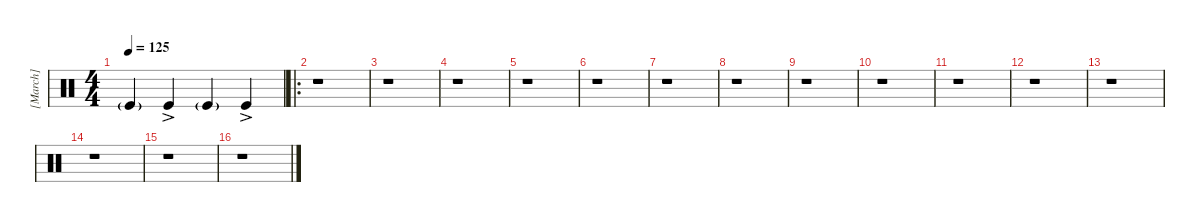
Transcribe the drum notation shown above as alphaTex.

\hideDynamics
\bracketExtendMode groupsimilarinstruments
\firstSystemTrackNameMode fullname
\otherSystemsTrackNameMode fullname
\otherSystemsTrackNameOrientation horizontal
\track ("[March]" "H-Clap") {instrument percussion}
\staff {score}
\articulation defaults
\ts (4 4)
\tempo 125
\clef neutral
\ks c "Kick (hit)"{g}.4{dy mf} "Kick (hit)"{ac}.4 "Kick (hit)"{g}.4 "Kick (hit)"{ac}.4
|
\ro
\scale
0.363636 r.1 |
r.1 |
\scale
0.272727 r.1 |
r.1 |
r.1 |
r.1 |
r.1 |
r.1 |
r.1 |
r.1 |
r.1 |
r.1 |
r.1 |
r.1 |
r.1
